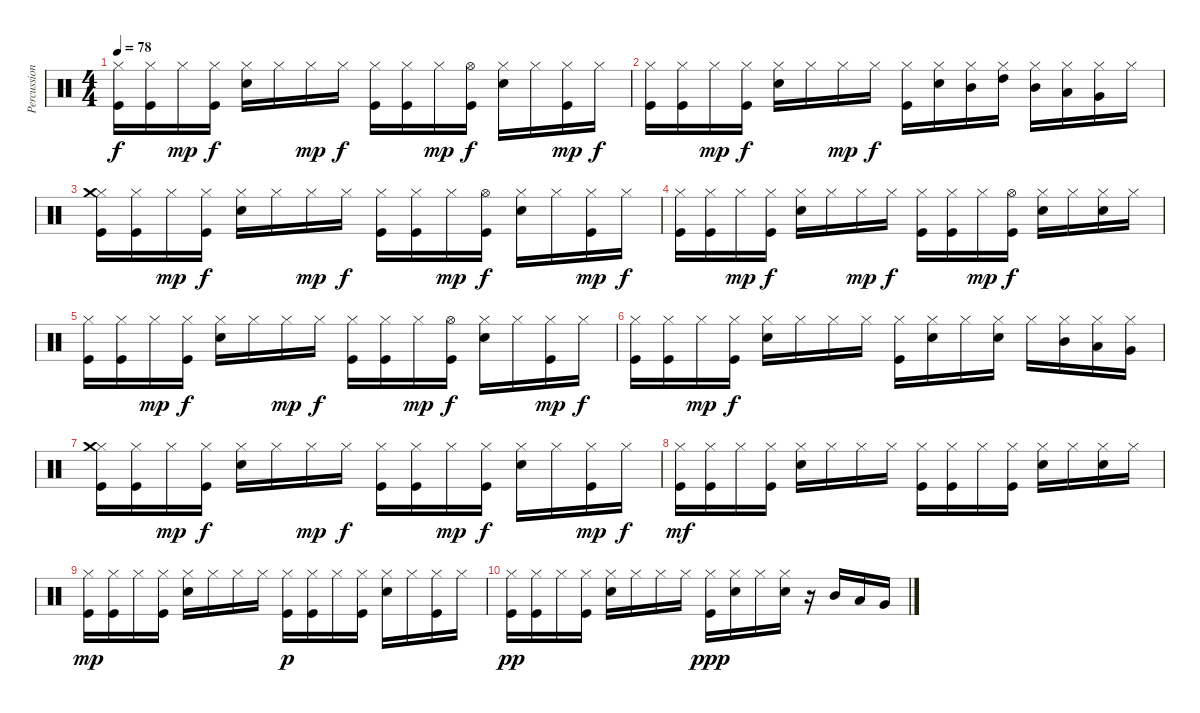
\track ("Percussion" "Percussion") {instrument percussion}
\staff {score}
\articulation defaults
\ts (4 4)
\tempo 78
\clef neutral
\ks c
("Kick (hit)" "Hi-Hat (closed)").16{dy f} ("Kick (hit)" "Hi-Hat (closed)").16 "Hi-Hat (closed)".16{dy mp} ("Kick (hit)" "Hi-Hat (closed)").16{dy f} ("Electric Snare (hit)" "Hi-Hat (closed)").16 "Hi-Hat (closed)".16 "Hi-Hat (closed)".16{dy mp} "Hi-Hat (closed)".16{dy f} ("Kick (hit)" "Hi-Hat (closed)").16 ("Kick (hit)" "Hi-Hat (closed)").16 "Hi-Hat (closed)".16{dy mp} ("Kick (hit)" "Hi-Hat (open)").16{dy f} ("Electric Snare (hit)" "Hi-Hat (closed)").16 "Hi-Hat (closed)".16 ("Kick (hit)" "Hi-Hat (closed)").16{dy mp} "Hi-Hat (closed)".16{dy f} |
("Kick (hit)" "Hi-Hat (closed)").16 ("Kick (hit)" "Hi-Hat (closed)").16 "Hi-Hat (closed)".16{dy mp} ("Kick (hit)" "Hi-Hat (closed)").16{dy f} ("Electric Snare (hit)" "Hi-Hat (closed)").16 "Hi-Hat (closed)".16 "Hi-Hat (closed)".16{dy mp} "Hi-Hat (closed)".16{dy f} ("Kick (hit)" "Hi-Hat (closed)").16 ("Electric Snare (hit)" "Hi-Hat (closed)").16 ("Mid Tom (hit)" "Hi-Hat (closed)").16 ("High Tom (hit)" "Hi-Hat (closed)").16 ("Mid Tom (hit)" "Hi-Hat (closed)").16 ("Low Tom (hit)" "Hi-Hat (closed)").16 ("Very Low Tom (hit)" "Hi-Hat (closed)").16 "Hi-Hat (closed)".16 |
("Kick (hit)" "Hi-Hat (closed)" "Crash medium (hit)").16 ("Kick (hit)" "Hi-Hat (closed)").16 "Hi-Hat (closed)".16{dy mp} ("Kick (hit)" "Hi-Hat (closed)").16{dy f} ("Electric Snare (hit)" "Hi-Hat (closed)").16 "Hi-Hat (closed)".16 "Hi-Hat (closed)".16{dy mp} "Hi-Hat (closed)".16{dy f} ("Kick (hit)" "Hi-Hat (closed)").16 ("Kick (hit)" "Hi-Hat (closed)").16 "Hi-Hat (closed)".16{dy mp} ("Kick (hit)" "Hi-Hat (open)").16{dy f} ("Electric Snare (hit)" "Hi-Hat (closed)").16 "Hi-Hat (closed)".16 ("Kick (hit)" "Hi-Hat (closed)").16{dy mp} "Hi-Hat (closed)".16{dy f} |
("Kick (hit)" "Hi-Hat (closed)").16 ("Kick (hit)" "Hi-Hat (closed)").16 "Hi-Hat (closed)".16{dy mp} ("Kick (hit)" "Hi-Hat (closed)").16{dy f} ("Electric Snare (hit)" "Hi-Hat (closed)").16 "Hi-Hat (closed)".16 "Hi-Hat (closed)".16{dy mp} "Hi-Hat (closed)".16{dy f} ("Kick (hit)" "Hi-Hat (closed)").16 ("Kick (hit)" "Hi-Hat (closed)").16 "Hi-Hat (closed)".16{dy mp} ("Kick (hit)" "Hi-Hat (open)").16{dy f} ("Electric Snare (hit)" "Hi-Hat (closed)").16 "Hi-Hat (closed)".16 ("Electric Snare (hit)" "Hi-Hat (closed)").16 "Hi-Hat (closed)".16 |
("Kick (hit)" "Hi-Hat (closed)").16 ("Kick (hit)" "Hi-Hat (closed)").16 "Hi-Hat (closed)".16{dy mp} ("Kick (hit)" "Hi-Hat (closed)").16{dy f} ("Electric Snare (hit)" "Hi-Hat (closed)").16 "Hi-Hat (closed)".16 "Hi-Hat (closed)".16{dy mp} "Hi-Hat (closed)".16{dy f} ("Kick (hit)" "Hi-Hat (closed)").16 ("Kick (hit)" "Hi-Hat (closed)").16 "Hi-Hat (closed)".16{dy mp} ("Kick (hit)" "Hi-Hat (open)").16{dy f} ("Electric Snare (hit)" "Hi-Hat (closed)").16 "Hi-Hat (closed)".16 ("Kick (hit)" "Hi-Hat (closed)").16{dy mp} "Hi-Hat (closed)".16{dy f} |
("Kick (hit)" "Hi-Hat (closed)").16 ("Kick (hit)" "Hi-Hat (closed)").16 "Hi-Hat (closed)".16{dy mp} ("Kick (hit)" "Hi-Hat (closed)").16{dy f} ("Electric Snare (hit)" "Hi-Hat (closed)").16 "Hi-Hat (closed)".16 "Hi-Hat (closed)".16 "Hi-Hat (closed)".16 ("Kick (hit)" "Hi-Hat (closed)").16 ("Electric Snare (hit)" "Hi-Hat (closed)").16 "Hi-Hat (closed)".16 ("Electric Snare (hit)" "Hi-Hat (closed)").16 "Hi-Hat (closed)".16 ("Mid Tom (hit)" "Hi-Hat (closed)").16 ("Low Tom (hit)" "Hi-Hat (closed)").16 ("Very Low Tom (hit)" "Hi-Hat (closed)").16 |
("Kick (hit)" "Hi-Hat (closed)" "Crash medium (hit)").16 ("Kick (hit)" "Hi-Hat (closed)").16 "Hi-Hat (closed)".16{dy mp} ("Kick (hit)" "Hi-Hat (closed)").16{dy f} ("Electric Snare (hit)" "Hi-Hat (closed)").16 "Hi-Hat (closed)".16 "Hi-Hat (closed)".16{dy mp} "Hi-Hat (closed)".16{dy f} ("Kick (hit)" "Hi-Hat (closed)").16 ("Kick (hit)" "Hi-Hat (closed)").16 "Hi-Hat (closed)".16{dy mp} ("Kick (hit)" "Hi-Hat (closed)").16{dy f} ("Electric Snare (hit)" "Hi-Hat (closed)").16 "Hi-Hat (closed)".16 ("Kick (hit)" "Hi-Hat (closed)").16{dy mp} "Hi-Hat (closed)".16{dy f} |
("Kick (hit)" "Hi-Hat (closed)").16{dy mf} ("Kick (hit)" "Hi-Hat (closed)").16 "Hi-Hat (closed)".16 ("Kick (hit)" "Hi-Hat (closed)").16 ("Electric Snare (hit)" "Hi-Hat (closed)").16 "Hi-Hat (closed)".16 "Hi-Hat (closed)".16 "Hi-Hat (closed)".16 ("Kick (hit)" "Hi-Hat (closed)").16 ("Kick (hit)" "Hi-Hat (closed)").16 "Hi-Hat (closed)".16 ("Kick (hit)" "Hi-Hat (closed)").16 ("Electric Snare (hit)" "Hi-Hat (closed)").16 "Hi-Hat (closed)".16 ("Electric Snare (hit)" "Hi-Hat (closed)").16 "Hi-Hat (closed)".16 |
("Kick (hit)" "Hi-Hat (closed)").16{dy mp} ("Kick (hit)" "Hi-Hat (closed)").16 "Hi-Hat (closed)".16 ("Kick (hit)" "Hi-Hat (closed)").16 ("Electric Snare (hit)" "Hi-Hat (closed)").16 "Hi-Hat (closed)".16 "Hi-Hat (closed)".16 "Hi-Hat (closed)".16 ("Kick (hit)" "Hi-Hat (closed)").16{dy p} ("Kick (hit)" "Hi-Hat (closed)").16 "Hi-Hat (closed)".16 ("Kick (hit)" "Hi-Hat (closed)").16 ("Electric Snare (hit)" "Hi-Hat (closed)").16 "Hi-Hat (closed)".16 ("Kick (hit)" "Hi-Hat (closed)").16 "Hi-Hat (closed)".16 |
("Kick (hit)" "Hi-Hat (closed)").16{dy pp} ("Kick (hit)" "Hi-Hat (closed)").16 "Hi-Hat (closed)".16 ("Kick (hit)" "Hi-Hat (closed)").16 ("Electric Snare (hit)" "Hi-Hat (closed)").16 "Hi-Hat (closed)".16 "Hi-Hat (closed)".16 "Hi-Hat (closed)".16 ("Kick (hit)" "Hi-Hat (closed)").16{dy ppp} ("Electric Snare (hit)" "Hi-Hat (closed)").16 "Hi-Hat (closed)".16 ("Electric Snare (hit)" "Hi-Hat (closed)").16 r.16 "Mid Tom (hit)".16 "Low Tom (hit)".16 "Very Low Tom (hit)".16
